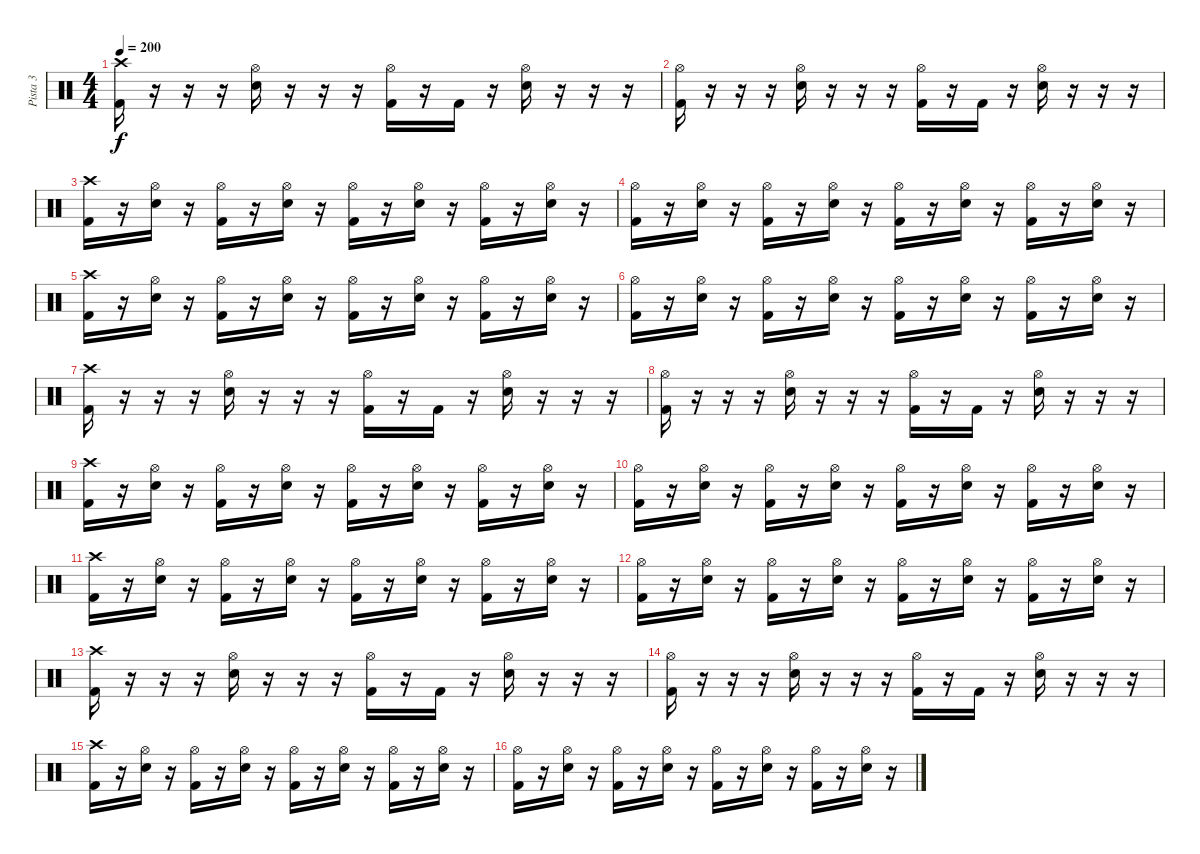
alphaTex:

\track ("Pista 3" "Pista 3") {instrument percussion}
\staff {score}
\articulation defaults
\ts (4 4)
\tempo 200
\clef neutral
\ks c
("Crash high (hit)" "Kick (hit) 2").16{dy f} r.16 r.16 r.16 ("Hi-Hat (open)" "Electric Snare (hit)").16 r.16 r.16 r.16 ("Hi-Hat (open)" "Kick (hit) 2").16 r.16 "Kick (hit) 2".16 r.16 ("Hi-Hat (open)" "Electric Snare (hit)").16 r.16 r.16 r.16 |
("Hi-Hat (open)" "Kick (hit) 2").16 r.16 r.16 r.16 ("Hi-Hat (open)" "Electric Snare (hit)").16 r.16 r.16 r.16 ("Hi-Hat (open)" "Kick (hit) 2").16 r.16 "Kick (hit) 2".16 r.16 ("Hi-Hat (open)" "Electric Snare (hit)").16 r.16 r.16 r.16 |
("Crash high (hit)" "Kick (hit) 2").16 r.16 ("Hi-Hat (open)" "Electric Snare (hit)").16 r.16 ("Hi-Hat (open)" "Kick (hit) 2").16 r.16 ("Hi-Hat (open)" "Electric Snare (hit)").16 r.16 ("Hi-Hat (open)" "Kick (hit) 2").16 r.16 ("Hi-Hat (open)" "Electric Snare (hit)").16 r.16 ("Hi-Hat (open)" "Kick (hit) 2").16 r.16 ("Hi-Hat (open)" "Electric Snare (hit)").16 r.16 |
("Hi-Hat (open)" "Kick (hit) 2").16 r.16 ("Hi-Hat (open)" "Electric Snare (hit)").16 r.16 ("Hi-Hat (open)" "Kick (hit) 2").16 r.16 ("Hi-Hat (open)" "Electric Snare (hit)").16 r.16 ("Hi-Hat (open)" "Kick (hit) 2").16 r.16 ("Hi-Hat (open)" "Electric Snare (hit)").16 r.16 ("Hi-Hat (open)" "Kick (hit) 2").16 r.16 ("Hi-Hat (open)" "Electric Snare (hit)").16 r.16 |
("Crash high (hit)" "Kick (hit) 2").16 r.16 ("Hi-Hat (open)" "Electric Snare (hit)").16 r.16 ("Hi-Hat (open)" "Kick (hit) 2").16 r.16 ("Hi-Hat (open)" "Electric Snare (hit)").16 r.16 ("Hi-Hat (open)" "Kick (hit) 2").16 r.16 ("Hi-Hat (open)" "Electric Snare (hit)").16 r.16 ("Hi-Hat (open)" "Kick (hit) 2").16 r.16 ("Hi-Hat (open)" "Electric Snare (hit)").16 r.16 |
("Hi-Hat (open)" "Kick (hit) 2").16 r.16 ("Hi-Hat (open)" "Electric Snare (hit)").16 r.16 ("Hi-Hat (open)" "Kick (hit) 2").16 r.16 ("Hi-Hat (open)" "Electric Snare (hit)").16 r.16 ("Hi-Hat (open)" "Kick (hit) 2").16 r.16 ("Hi-Hat (open)" "Electric Snare (hit)").16 r.16 ("Hi-Hat (open)" "Kick (hit) 2").16 r.16 ("Hi-Hat (open)" "Electric Snare (hit)").16 r.16 |
("Crash high (hit)" "Kick (hit) 2").16 r.16 r.16 r.16 ("Hi-Hat (open)" "Electric Snare (hit)").16 r.16 r.16 r.16 ("Hi-Hat (open)" "Kick (hit) 2").16 r.16 "Kick (hit) 2".16 r.16 ("Hi-Hat (open)" "Electric Snare (hit)").16 r.16 r.16 r.16 |
("Hi-Hat (open)" "Kick (hit) 2").16 r.16 r.16 r.16 ("Hi-Hat (open)" "Electric Snare (hit)").16 r.16 r.16 r.16 ("Hi-Hat (open)" "Kick (hit) 2").16 r.16 "Kick (hit) 2".16 r.16 ("Hi-Hat (open)" "Electric Snare (hit)").16 r.16 r.16 r.16 |
("Crash high (hit)" "Kick (hit) 2").16 r.16 ("Hi-Hat (open)" "Electric Snare (hit)").16 r.16 ("Hi-Hat (open)" "Kick (hit) 2").16 r.16 ("Hi-Hat (open)" "Electric Snare (hit)").16 r.16 ("Hi-Hat (open)" "Kick (hit) 2").16 r.16 ("Hi-Hat (open)" "Electric Snare (hit)").16 r.16 ("Hi-Hat (open)" "Kick (hit) 2").16 r.16 ("Hi-Hat (open)" "Electric Snare (hit)").16 r.16 |
("Hi-Hat (open)" "Kick (hit) 2").16 r.16 ("Hi-Hat (open)" "Electric Snare (hit)").16 r.16 ("Hi-Hat (open)" "Kick (hit) 2").16 r.16 ("Hi-Hat (open)" "Electric Snare (hit)").16 r.16 ("Hi-Hat (open)" "Kick (hit) 2").16 r.16 ("Hi-Hat (open)" "Electric Snare (hit)").16 r.16 ("Hi-Hat (open)" "Kick (hit) 2").16 r.16 ("Hi-Hat (open)" "Electric Snare (hit)").16 r.16 |
("Crash high (hit)" "Kick (hit) 2").16 r.16 ("Hi-Hat (open)" "Electric Snare (hit)").16 r.16 ("Hi-Hat (open)" "Kick (hit) 2").16 r.16 ("Hi-Hat (open)" "Electric Snare (hit)").16 r.16 ("Hi-Hat (open)" "Kick (hit) 2").16 r.16 ("Hi-Hat (open)" "Electric Snare (hit)").16 r.16 ("Hi-Hat (open)" "Kick (hit) 2").16 r.16 ("Hi-Hat (open)" "Electric Snare (hit)").16 r.16 |
("Hi-Hat (open)" "Kick (hit) 2").16 r.16 ("Hi-Hat (open)" "Electric Snare (hit)").16 r.16 ("Hi-Hat (open)" "Kick (hit) 2").16 r.16 ("Hi-Hat (open)" "Electric Snare (hit)").16 r.16 ("Hi-Hat (open)" "Kick (hit) 2").16 r.16 ("Hi-Hat (open)" "Electric Snare (hit)").16 r.16 ("Hi-Hat (open)" "Kick (hit) 2").16 r.16 ("Hi-Hat (open)" "Electric Snare (hit)").16 r.16 |
("Crash high (hit)" "Kick (hit) 2").16 r.16 r.16 r.16 ("Hi-Hat (open)" "Electric Snare (hit)").16 r.16 r.16 r.16 ("Hi-Hat (open)" "Kick (hit) 2").16 r.16 "Kick (hit) 2".16 r.16 ("Hi-Hat (open)" "Electric Snare (hit)").16 r.16 r.16 r.16 |
("Hi-Hat (open)" "Kick (hit) 2").16 r.16 r.16 r.16 ("Hi-Hat (open)" "Electric Snare (hit)").16 r.16 r.16 r.16 ("Hi-Hat (open)" "Kick (hit) 2").16 r.16 "Kick (hit) 2".16 r.16 ("Hi-Hat (open)" "Electric Snare (hit)").16 r.16 r.16 r.16 |
("Crash high (hit)" "Kick (hit) 2").16 r.16 ("Hi-Hat (open)" "Electric Snare (hit)").16 r.16 ("Hi-Hat (open)" "Kick (hit) 2").16 r.16 ("Hi-Hat (open)" "Electric Snare (hit)").16 r.16 ("Hi-Hat (open)" "Kick (hit) 2").16 r.16 ("Hi-Hat (open)" "Electric Snare (hit)").16 r.16 ("Hi-Hat (open)" "Kick (hit) 2").16 r.16 ("Hi-Hat (open)" "Electric Snare (hit)").16 r.16 |
("Hi-Hat (open)" "Kick (hit) 2").16 r.16 ("Hi-Hat (open)" "Electric Snare (hit)").16 r.16 ("Hi-Hat (open)" "Kick (hit) 2").16 r.16 ("Hi-Hat (open)" "Electric Snare (hit)").16 r.16 ("Hi-Hat (open)" "Kick (hit) 2").16 r.16 ("Hi-Hat (open)" "Electric Snare (hit)").16 r.16 ("Hi-Hat (open)" "Kick (hit) 2").16 r.16 ("Hi-Hat (open)" "Electric Snare (hit)").16 r.16
